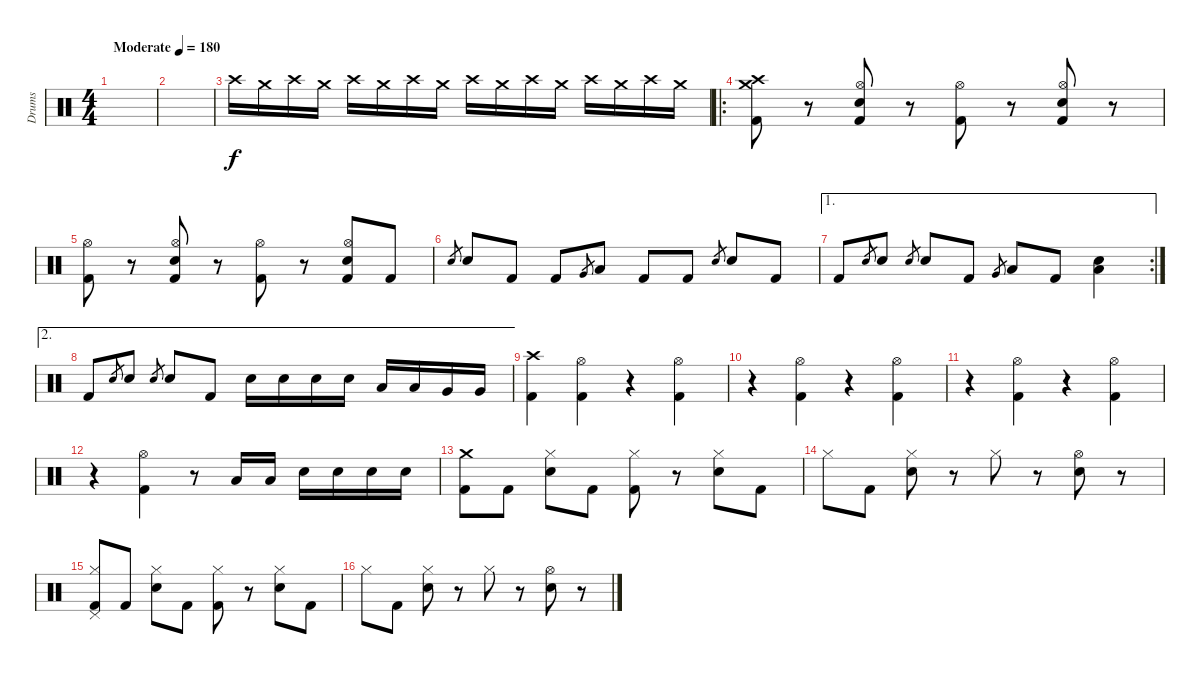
\track ("Drums" "Drums") {instrument percussion}
\staff {score}
\articulation defaults
\ts (4 4)
\tempo (180 "Moderate")
\clef neutral
\ks c
|
|
"Crash high (hit)".16{volume 3} "Crash medium (hit)".16{volume 13} "Crash high (hit)".16 "Crash medium (hit)".16 "Crash high (hit)".16 "Crash medium (hit)".16 "Crash high (hit)".16 "Crash medium (hit)".16 "Crash high (hit)".16 "Crash medium (hit)".16 "Crash high (hit)".16 "Crash medium (hit)".16 "Crash high (hit)".16 "Crash medium (hit)".16 "Crash high (hit)".16 "Crash medium (hit)".16 |
\ro
("Crash medium (hit)" "Crash high (hit)" "Kick (hit) 2").8 r.8 ("Hi-Hat (open)" "Electric Snare (hit)" "Kick (hit) 2").8 r.8 ("Hi-Hat (open)" "Kick (hit) 2").8 r.8 ("Hi-Hat (open)" "Electric Snare (hit)" "Kick (hit) 2").8 r.8 |
("Hi-Hat (open)" "Kick (hit) 2").8 r.8 ("Hi-Hat (open)" "Electric Snare (hit)" "Kick (hit) 2").8 r.8 ("Hi-Hat (open)" "Kick (hit) 2").8 r.8 ("Hi-Hat (open)" "Electric Snare (hit)" "Kick (hit) 2").8 "Kick (hit) 2".8 |
"Electric Snare (hit)".8{gr} "Electric Snare (hit)".8 "Kick (hit) 2".8 "Kick (hit) 2".8 "Very Low Tom (hit)".8{gr} "Low Tom (hit)".8 "Kick (hit) 2".8 "Kick (hit) 2".8 "Electric Snare (hit)".8{gr} "Electric Snare (hit)".8 "Kick (hit) 2".8 |
\ae 1
\rc 2 "Kick (hit) 2".8 "Electric Snare (hit)".8{gr} "Electric Snare (hit)".8 "Electric Snare (hit)".8{gr} "Electric Snare (hit)".8 "Kick (hit) 2".8 "Very Low Tom (hit)".8{gr} "Low Tom (hit)".8 "Kick (hit) 2".8
("Low Floor Tom (hit)" "Electric Snare (hit)").4 |
\ae 2 "Kick (hit) 2".8 "Electric Snare (hit)".8{gr} "Electric Snare (hit)".8 "Electric Snare (hit)".8{gr} "Electric Snare (hit)".8 "Kick (hit) 2".8 "Electric Snare (hit)".16 "Electric Snare (hit)".16 "Electric Snare (hit)".16 "Electric Snare (hit)".16 "Low Tom (hit)".16 "Low Tom (hit)".16 "Very Low Tom (hit)".16 "Very Low Tom (hit)".16
|
("Crash high (hit)" "Kick (hit) 2").4 ("Hi-Hat (open)" "Kick (hit) 2").4 r.4 ("Hi-Hat (open)" "Kick (hit) 2").4 |
r.4 ("Hi-Hat (open)" "Kick (hit) 2").4 r.4 ("Hi-Hat (open)" "Kick (hit) 2").4 |
r.4 ("Hi-Hat (open)" "Kick (hit) 2").4 r.4 ("Hi-Hat (open)" "Kick (hit) 2").4 |
r.4 ("Hi-Hat (open)" "Kick (hit) 2").4 r.8 "Low Tom (hit)".16 "Low Tom (hit)".16 "Electric Snare (hit)".16 "Electric Snare (hit)".16 "Electric Snare (hit)".16 "Electric Snare (hit)".16 |
("Crash medium (hit)" "Kick (hit) 2").8 "Kick (hit) 2".8 ("Hi-Hat (closed)" "Electric Snare (hit)").8 "Kick (hit) 2".8 ("Hi-Hat (closed)" "Kick (hit) 2").8 r.8 ("Hi-Hat (closed)" "Electric Snare (hit)").8 "Kick (hit) 2".8 |
"Hi-Hat (closed)".8 "Kick (hit) 2".8 ("Hi-Hat (closed)" "Electric Snare (hit)").8 r.8 "Hi-Hat (closed)".8 r.8 ("Hi-Hat (open)" "Electric Snare (hit)").8 r.8 |
("Hi-Hat (closed)" "Pedal Hi-Hat (hit)" "Kick (hit) 2").8 "Kick (hit) 2".8 ("Hi-Hat (closed)" "Electric Snare (hit)").8 "Kick (hit) 2".8 ("Hi-Hat (closed)" "Kick (hit) 2").8 r.8 ("Hi-Hat (closed)" "Electric Snare (hit)").8 "Kick (hit) 2".8 |
"Hi-Hat (closed)".8 "Kick (hit) 2".8 ("Hi-Hat (closed)" "Electric Snare (hit)").8 r.8 "Hi-Hat (closed)".8 r.8 ("Hi-Hat (open)" "Electric Snare (hit)").8 r.8
